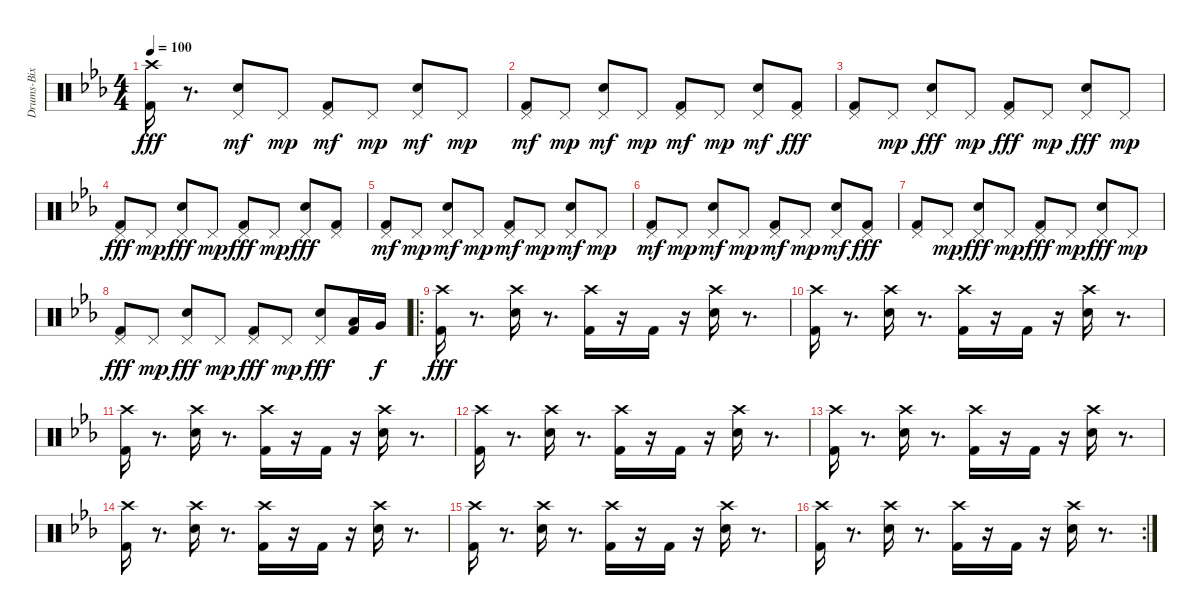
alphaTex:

\track ("Drums-Bix" "Drums-Bix") {instrument percussion}
\staff {score}
\articulation defaults
\ts (4 4)
\tempo 100
\clef neutral
\ks eb
("Kick (hit) 2" "Crash high (hit)").16{dy fff} r.8{d} ("Electric Snare (hit)" "Pedal Hi-Hat (hit)").8{dy mf} "Pedal Hi-Hat (hit)".8{dy mp} ("Kick (hit) 2" "Pedal Hi-Hat (hit)").8{dy mf} "Pedal Hi-Hat (hit)".8{dy mp} ("Electric Snare (hit)" "Pedal Hi-Hat (hit)").8{dy mf} "Pedal Hi-Hat (hit)".8{dy mp} |
("Kick (hit) 2" "Pedal Hi-Hat (hit)").8{dy mf} "Pedal Hi-Hat (hit)".8{dy mp} ("Electric Snare (hit)" "Pedal Hi-Hat (hit)").8{dy mf} "Pedal Hi-Hat (hit)".8{dy mp} ("Kick (hit) 2" "Pedal Hi-Hat (hit)").8{dy mf} "Pedal Hi-Hat (hit)".8{dy mp} ("Electric Snare (hit)" "Pedal Hi-Hat (hit)").8{dy mf} ("Pedal Hi-Hat (hit)" "Kick (hit) 2").8{dy fff} |
("Pedal Hi-Hat (hit)" "Kick (hit) 2").8 "Pedal Hi-Hat (hit)".8{dy mp} ("Pedal Hi-Hat (hit)" "Electric Snare (hit)").8{dy fff} "Pedal Hi-Hat (hit)".8{dy mp} ("Pedal Hi-Hat (hit)" "Kick (hit) 2").8{dy fff} "Pedal Hi-Hat (hit)".8{dy mp} ("Pedal Hi-Hat (hit)" "Electric Snare (hit)").8{dy fff} "Pedal Hi-Hat (hit)".8{dy mp} |
("Pedal Hi-Hat (hit)" "Kick (hit) 2").8{dy fff} "Pedal Hi-Hat (hit)".8{dy mp} ("Pedal Hi-Hat (hit)" "Electric Snare (hit)").8{dy fff} "Pedal Hi-Hat (hit)".8{dy mp} ("Pedal Hi-Hat (hit)" "Kick (hit) 2").8{dy fff} "Pedal Hi-Hat (hit)".8{dy mp} ("Pedal Hi-Hat (hit)" "Electric Snare (hit)").8{dy fff} ("Pedal Hi-Hat (hit)" "Kick (hit) 2").8 |
("Kick (hit) 2" "Pedal Hi-Hat (hit)").8{dy mf} "Pedal Hi-Hat (hit)".8{dy mp} ("Electric Snare (hit)" "Pedal Hi-Hat (hit)").8{dy mf} "Pedal Hi-Hat (hit)".8{dy mp} ("Kick (hit) 2" "Pedal Hi-Hat (hit)").8{dy mf} "Pedal Hi-Hat (hit)".8{dy mp} ("Electric Snare (hit)" "Pedal Hi-Hat (hit)").8{dy mf} "Pedal Hi-Hat (hit)".8{dy mp} |
("Kick (hit) 2" "Pedal Hi-Hat (hit)").8{dy mf} "Pedal Hi-Hat (hit)".8{dy mp} ("Electric Snare (hit)" "Pedal Hi-Hat (hit)").8{dy mf} "Pedal Hi-Hat (hit)".8{dy mp} ("Kick (hit) 2" "Pedal Hi-Hat (hit)").8{dy mf} "Pedal Hi-Hat (hit)".8{dy mp} ("Electric Snare (hit)" "Pedal Hi-Hat (hit)").8{dy mf} ("Pedal Hi-Hat (hit)" "Kick (hit) 2").8{dy fff} |
("Pedal Hi-Hat (hit)" "Kick (hit) 2").8 "Pedal Hi-Hat (hit)".8{dy mp} ("Pedal Hi-Hat (hit)" "Electric Snare (hit)").8{dy fff} "Pedal Hi-Hat (hit)".8{dy mp} ("Pedal Hi-Hat (hit)" "Kick (hit) 2").8{dy fff} "Pedal Hi-Hat (hit)".8{dy mp} ("Pedal Hi-Hat (hit)" "Electric Snare (hit)").8{dy fff} "Pedal Hi-Hat (hit)".8{dy mp} |
("Pedal Hi-Hat (hit)" "Kick (hit) 2").8{dy fff} "Pedal Hi-Hat (hit)".8{dy mp} ("Pedal Hi-Hat (hit)" "Electric Snare (hit)").8{dy fff} "Pedal Hi-Hat (hit)".8{dy mp} ("Pedal Hi-Hat (hit)" "Kick (hit) 2").8{dy fff} "Pedal Hi-Hat (hit)".8{dy mp} ("Pedal Hi-Hat (hit)" "Electric Snare (hit)").8{dy fff} ("Kick (hit) 2" "Low Tom (hit)").16 "Very Low Tom (hit)".16{dy f} |
\ro
("Crash high (hit)" "Kick (hit) 2").16{dy fff} r.8{d} ("Crash high (hit)" "Electric Snare (hit)").16 r.8{d} ("Crash high (hit)" "Kick (hit) 2").16 r.16 "Kick (hit) 2".16 r.16 ("Crash high (hit)" "Electric Snare (hit)").16 r.8{d} |
("Crash high (hit)" "Kick (hit) 2").16 r.8{d} ("Crash high (hit)" "Electric Snare (hit)").16 r.8{d} ("Crash high (hit)" "Kick (hit) 2").16 r.16 "Kick (hit) 2".16 r.16 ("Crash high (hit)" "Electric Snare (hit)").16 r.8{d} |
("Crash high (hit)" "Kick (hit) 2").16 r.8{d} ("Crash high (hit)" "Electric Snare (hit)").16 r.8{d} ("Crash high (hit)" "Kick (hit) 2").16 r.16 "Kick (hit) 2".16 r.16 ("Crash high (hit)" "Electric Snare (hit)").16 r.8{d} |
("Crash high (hit)" "Kick (hit) 2").16 r.8{d} ("Crash high (hit)" "Electric Snare (hit)").16 r.8{d} ("Crash high (hit)" "Kick (hit) 2").16 r.16 "Kick (hit) 2".16 r.16 ("Crash high (hit)" "Electric Snare (hit)").16 r.8{d} |
("Crash high (hit)" "Kick (hit) 2").16 r.8{d} ("Crash high (hit)" "Electric Snare (hit)").16 r.8{d} ("Crash high (hit)" "Kick (hit) 2").16 r.16 "Kick (hit) 2".16 r.16 ("Crash high (hit)" "Electric Snare (hit)").16 r.8{d} |
("Crash high (hit)" "Kick (hit) 2").16 r.8{d} ("Crash high (hit)" "Electric Snare (hit)").16 r.8{d} ("Crash high (hit)" "Kick (hit) 2").16 r.16 "Kick (hit) 2".16 r.16 ("Crash high (hit)" "Electric Snare (hit)").16 r.8{d} |
("Crash high (hit)" "Kick (hit) 2").16 r.8{d} ("Crash high (hit)" "Electric Snare (hit)").16 r.8{d} ("Crash high (hit)" "Kick (hit) 2").16 r.16 "Kick (hit) 2".16 r.16 ("Crash high (hit)" "Electric Snare (hit)").16 r.8{d} |
\rc 2
("Crash high (hit)" "Kick (hit) 2").16 r.8{d} ("Crash high (hit)" "Electric Snare (hit)").16 r.8{d} ("Crash high (hit)" "Kick (hit) 2").16 r.16 "Kick (hit) 2".16 r.16 ("Crash high (hit)" "Electric Snare (hit)").16 r.8{d}
